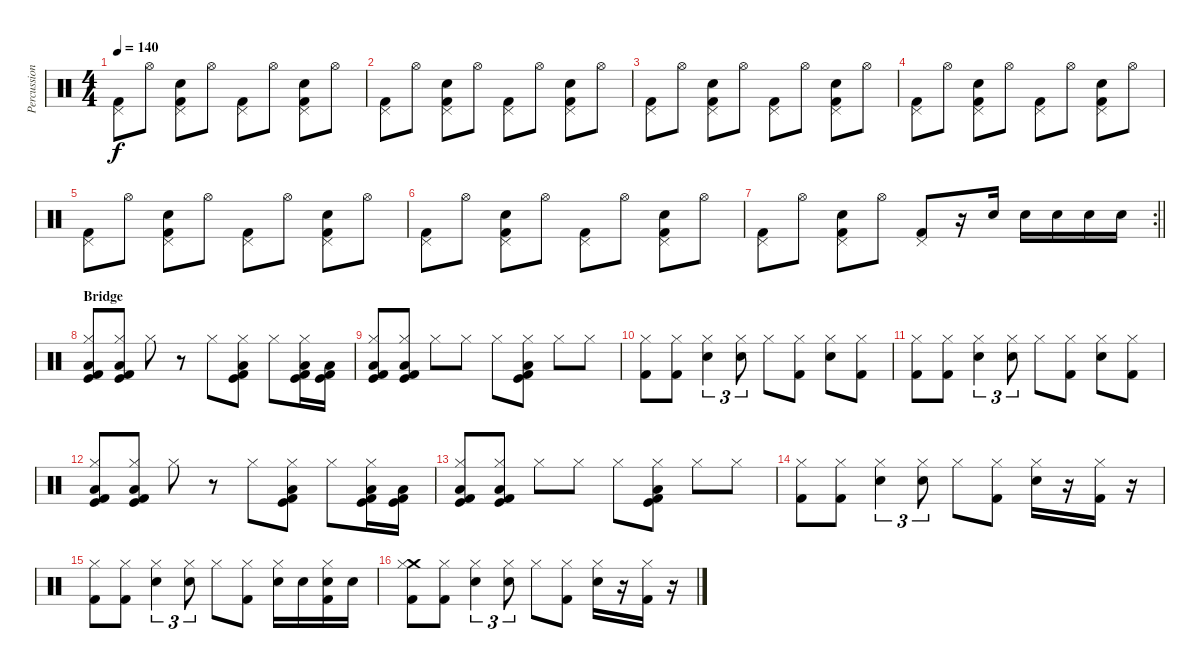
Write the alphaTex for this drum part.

\track ("Percussion" "Percussion") {instrument percussion}
\staff {score}
\articulation defaults
\ts (4 4)
\tempo 140
\clef neutral
\ks c
("Pedal Hi-Hat (hit)" "Kick (hit) 2").8{dy f} "Hi-Hat (open)".8 ("Pedal Hi-Hat (hit)" "Electric Snare (hit)" "Kick (hit) 2").8 "Hi-Hat (open)".8 ("Pedal Hi-Hat (hit)" "Kick (hit) 2").8 "Hi-Hat (open)".8 ("Pedal Hi-Hat (hit)" "Electric Snare (hit)" "Kick (hit) 2").8 "Hi-Hat (open)".8 |
("Pedal Hi-Hat (hit)" "Kick (hit) 2").8 "Hi-Hat (open)".8 ("Pedal Hi-Hat (hit)" "Electric Snare (hit)" "Kick (hit) 2").8 "Hi-Hat (open)".8 ("Pedal Hi-Hat (hit)" "Kick (hit) 2").8 "Hi-Hat (open)".8 ("Pedal Hi-Hat (hit)" "Electric Snare (hit)" "Kick (hit) 2").8 "Hi-Hat (open)".8 |
("Pedal Hi-Hat (hit)" "Kick (hit) 2").8 "Hi-Hat (open)".8 ("Pedal Hi-Hat (hit)" "Electric Snare (hit)" "Kick (hit) 2").8 "Hi-Hat (open)".8 ("Pedal Hi-Hat (hit)" "Kick (hit) 2").8 "Hi-Hat (open)".8 ("Pedal Hi-Hat (hit)" "Electric Snare (hit)" "Kick (hit) 2").8 "Hi-Hat (open)".8 |
("Pedal Hi-Hat (hit)" "Kick (hit) 2").8 "Hi-Hat (open)".8 ("Pedal Hi-Hat (hit)" "Electric Snare (hit)" "Kick (hit) 2").8 "Hi-Hat (open)".8 ("Pedal Hi-Hat (hit)" "Kick (hit) 2").8 "Hi-Hat (open)".8 ("Pedal Hi-Hat (hit)" "Electric Snare (hit)" "Kick (hit) 2").8 "Hi-Hat (open)".8 |
("Pedal Hi-Hat (hit)" "Kick (hit) 2").8 "Hi-Hat (open)".8 ("Pedal Hi-Hat (hit)" "Electric Snare (hit)" "Kick (hit) 2").8 "Hi-Hat (open)".8 ("Pedal Hi-Hat (hit)" "Kick (hit) 2").8 "Hi-Hat (open)".8 ("Pedal Hi-Hat (hit)" "Electric Snare (hit)" "Kick (hit) 2").8 "Hi-Hat (open)".8 |
("Pedal Hi-Hat (hit)" "Kick (hit) 2").8 "Hi-Hat (open)".8 ("Pedal Hi-Hat (hit)" "Electric Snare (hit)" "Kick (hit) 2").8 "Hi-Hat (open)".8 ("Pedal Hi-Hat (hit)" "Kick (hit) 2").8 "Hi-Hat (open)".8 ("Pedal Hi-Hat (hit)" "Electric Snare (hit)" "Kick (hit) 2").8 "Hi-Hat (open)".8 |
\rc 2
\barLineRight lightlight
("Pedal Hi-Hat (hit)" "Kick (hit) 2").8 "Hi-Hat (open)".8 ("Pedal Hi-Hat (hit)" "Electric Snare (hit)" "Kick (hit) 2").8 "Hi-Hat (open)".8 ("Pedal Hi-Hat (hit)" "Kick (hit) 2").8 r.16 "Electric Snare (hit)".16 "Electric Snare (hit)".16 "Electric Snare (hit)".16 "Electric Snare (hit)".16 "Electric Snare (hit)".16 |
\section ("" "Bridge")
("Hi-Hat (closed)" "Kick (hit) 2" "Low Floor Tom (hit)" "Kick (hit)").8 ("Hi-Hat (closed)" "Kick (hit) 2" "Low Floor Tom (hit)" "Kick (hit)").8 "Hi-Hat (closed)".8 r.8 "Hi-Hat (closed)".8 ("Hi-Hat (closed)" "Kick (hit) 2" "Low Floor Tom (hit)" "Kick (hit)").8 "Hi-Hat (closed)".8 ("Hi-Hat (closed)" "Kick (hit) 2" "Low Floor Tom (hit)" "Kick (hit)").16 ("Kick (hit) 2" "Low Floor Tom (hit)" "Kick (hit)").16 |
("Hi-Hat (closed)" "Kick (hit) 2" "Low Floor Tom (hit)" "Kick (hit)").8 ("Hi-Hat (closed)" "Kick (hit) 2" "Low Floor Tom (hit)" "Kick (hit)").8 "Hi-Hat (closed)".8 "Hi-Hat (closed)".8 "Hi-Hat (closed)".8 ("Hi-Hat (closed)" "Kick (hit) 2" "Low Floor Tom (hit)" "Kick (hit)").8 "Hi-Hat (closed)".8 "Hi-Hat (closed)".8 |
("Hi-Hat (closed)" "Kick (hit) 2").8 ("Hi-Hat (closed)" "Kick (hit) 2").8 ("Hi-Hat (closed)" "Electric Snare (hit)").4{tu (3 2)} ("Hi-Hat (closed)" "Electric Snare (hit)").8{tu (3 2)} "Hi-Hat (closed)".8 ("Hi-Hat (closed)" "Kick (hit) 2").8 ("Hi-Hat (closed)" "Electric Snare (hit)").8 ("Hi-Hat (closed)" "Kick (hit) 2").8 |
("Hi-Hat (closed)" "Kick (hit) 2").8 ("Hi-Hat (closed)" "Kick (hit) 2").8 ("Hi-Hat (closed)" "Electric Snare (hit)").4{tu (3 2)} ("Hi-Hat (closed)" "Electric Snare (hit)").8{tu (3 2)} "Hi-Hat (closed)".8 ("Hi-Hat (closed)" "Kick (hit) 2").8 ("Hi-Hat (closed)" "Electric Snare (hit)").8 ("Hi-Hat (closed)" "Kick (hit) 2").8 |
("Hi-Hat (closed)" "Kick (hit) 2" "Low Floor Tom (hit)" "Kick (hit)").8 ("Hi-Hat (closed)" "Kick (hit) 2" "Low Floor Tom (hit)" "Kick (hit)").8 "Hi-Hat (closed)".8 r.8 "Hi-Hat (closed)".8 ("Hi-Hat (closed)" "Kick (hit) 2" "Low Floor Tom (hit)" "Kick (hit)").8 "Hi-Hat (closed)".8 ("Hi-Hat (closed)" "Kick (hit) 2" "Low Floor Tom (hit)" "Kick (hit)").16 ("Kick (hit) 2" "Low Floor Tom (hit)" "Kick (hit)").16 |
("Hi-Hat (closed)" "Kick (hit) 2" "Low Floor Tom (hit)" "Kick (hit)").8 ("Hi-Hat (closed)" "Kick (hit) 2" "Low Floor Tom (hit)" "Kick (hit)").8 "Hi-Hat (closed)".8 "Hi-Hat (closed)".8 "Hi-Hat (closed)".8 ("Hi-Hat (closed)" "Kick (hit) 2" "Low Floor Tom (hit)" "Kick (hit)").8 "Hi-Hat (closed)".8 "Hi-Hat (closed)".8 |
("Hi-Hat (closed)" "Kick (hit) 2").8 ("Hi-Hat (closed)" "Kick (hit) 2").8 ("Hi-Hat (closed)" "Electric Snare (hit)").4{tu (3 2)} ("Hi-Hat (closed)" "Electric Snare (hit)").8{tu (3 2)} "Hi-Hat (closed)".8 ("Hi-Hat (closed)" "Kick (hit) 2").8 ("Hi-Hat (closed)" "Electric Snare (hit)").16 r.16 ("Hi-Hat (closed)" "Kick (hit) 2").16 r.16 |
("Hi-Hat (closed)" "Kick (hit) 2").8 ("Hi-Hat (closed)" "Kick (hit) 2").8 ("Hi-Hat (closed)" "Electric Snare (hit)").4{tu (3 2)} ("Hi-Hat (closed)" "Electric Snare (hit)").8{tu (3 2)} "Hi-Hat (closed)".8 ("Hi-Hat (closed)" "Kick (hit) 2").8 ("Hi-Hat (closed)" "Electric Snare (hit)").16 "Electric Snare (hit)".16 ("Hi-Hat (closed)" "Electric Snare (hit)" "Kick (hit) 2").16 "Electric Snare (hit)".16 |
("Crash medium (hit)" "Hi-Hat (closed)" "Kick (hit) 2").8 ("Hi-Hat (closed)" "Kick (hit) 2").8 ("Hi-Hat (closed)" "Electric Snare (hit)").4{tu (3 2)} ("Hi-Hat (closed)" "Electric Snare (hit)").8{tu (3 2)} "Hi-Hat (closed)".8 ("Hi-Hat (closed)" "Kick (hit) 2").8 ("Hi-Hat (closed)" "Electric Snare (hit)").16 r.16 ("Hi-Hat (closed)" "Kick (hit) 2").16 r.16
